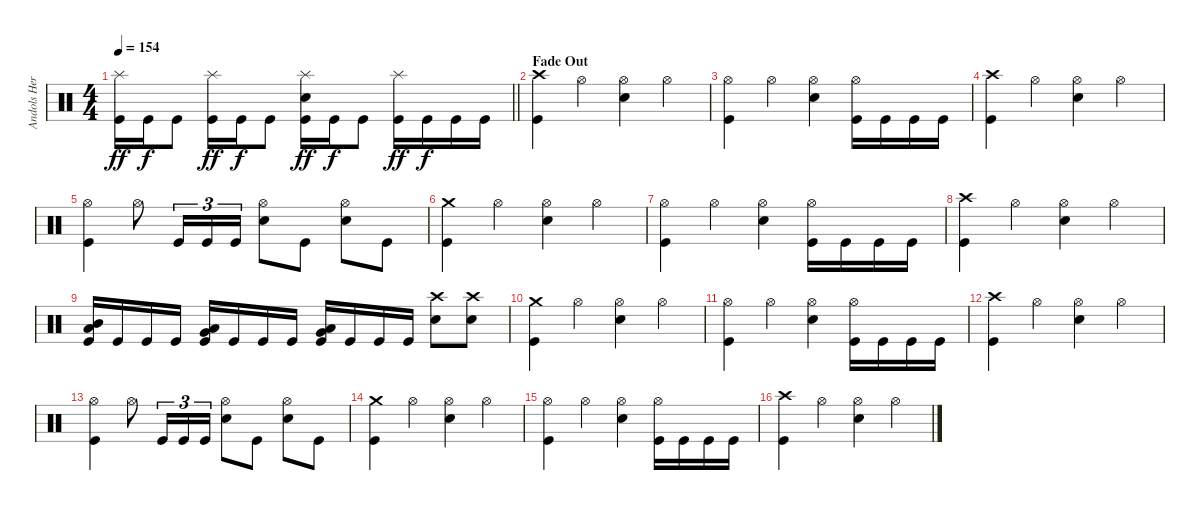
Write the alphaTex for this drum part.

\track ("Andols Herrick" "Andols Her") {instrument percussion}
\staff
\articulation defaults
\ts (4 4)
\tempo 154
\clef neutral
\barLineRight lightlight
\ks c
("Splash (hit)" "Kick (hit)").16{dy ff} "Kick (hit)".16{dy f} "Kick (hit)".8 ("Splash (hit)" "Kick (hit)").16{dy ff} "Kick (hit)".16{dy f} "Kick (hit)".8 ("Splash (hit)" "Electric Snare (hit)" "Kick (hit)").16{dy ff} "Kick (hit)".16{dy f} "Kick (hit)".8 ("Splash (hit)" "Kick (hit)").16{dy ff} "Kick (hit)".16{dy f} "Kick (hit)".16 "Kick (hit)".16 |
\section ("" "Fade Out")
("Crash high (hit)" "Kick (hit)").4{volume 11} "Hi-Hat (open)".4 ("Hi-Hat (open)" "Electric Snare (hit)").4 "Hi-Hat (open)".4 |
("Hi-Hat (open)" "Kick (hit)").4 "Hi-Hat (open)".4 ("Hi-Hat (open)" "Electric Snare (hit)").4 ("Hi-Hat (open)" "Kick (hit)").16 "Kick (hit)".16 "Kick (hit)".16 "Kick (hit)".16 |
("Crash high (hit)" "Kick (hit)").4 "Hi-Hat (open)".4 ("Hi-Hat (open)" "Electric Snare (hit)").4 "Hi-Hat (open)".4 |
("Hi-Hat (open)" "Kick (hit)").4 "Hi-Hat (open)".8 "Kick (hit)".16{tu (3 2)} "Kick (hit)".16{tu (3 2)} "Kick (hit)".16{tu (3 2)} ("Hi-Hat (open)" "Electric Snare (hit)").8 "Kick (hit)".8 ("Hi-Hat (open)" "Electric Snare (hit)").8 "Kick (hit)".8 |
("Crash medium (hit)" "Kick (hit)").4{volume 7} "Hi-Hat (open)".4 ("Hi-Hat (open)" "Electric Snare (hit)").4 "Hi-Hat (open)".4 |
("Hi-Hat (open)" "Kick (hit)").4 "Hi-Hat (open)".4 ("Hi-Hat (open)" "Electric Snare (hit)").4 ("Hi-Hat (open)" "Kick (hit)").16 "Kick (hit)".16 "Kick (hit)".16 "Kick (hit)".16 |
("Crash high (hit)" "Kick (hit)").4 "Hi-Hat (open)".4 ("Hi-Hat (open)" "Electric Snare (hit)").4 "Hi-Hat (open)".4 |
("Mid Tom (hit)" "Low Tom (hit)" "Kick (hit)").16 "Kick (hit)".16 "Kick (hit)".16 "Kick (hit)".16 ("Low Tom (hit)" "Very Low Tom (hit)" "Kick (hit)").16 "Kick (hit)".16 "Kick (hit)".16 "Kick (hit)".16 ("Very Low Tom (hit)" "Low Floor Tom (hit)" "Kick (hit)").16 "Kick (hit)".16 "Kick (hit)".16 "Kick (hit)".16 ("Crash high (hit)" "Electric Snare (hit)").8 ("Crash high (hit)" "Electric Snare (hit)").8 |
("Crash medium (hit)" "Kick (hit)").4{volume 1} "Hi-Hat (open)".4 ("Hi-Hat (open)" "Electric Snare (hit)").4 "Hi-Hat (open)".4 |
("Hi-Hat (open)" "Kick (hit)").4 "Hi-Hat (open)".4 ("Hi-Hat (open)" "Electric Snare (hit)").4 ("Hi-Hat (open)" "Kick (hit)").16 "Kick (hit)".16 "Kick (hit)".16 "Kick (hit)".16 |
("Crash high (hit)" "Kick (hit)").4 "Hi-Hat (open)".4 ("Hi-Hat (open)" "Electric Snare (hit)").4 "Hi-Hat (open)".4 |
("Hi-Hat (open)" "Kick (hit)").4 "Hi-Hat (open)".8 "Kick (hit)".16{tu (3 2)} "Kick (hit)".16{tu (3 2)} "Kick (hit)".16{tu (3 2)} ("Hi-Hat (open)" "Electric Snare (hit)").8 "Kick (hit)".8 ("Hi-Hat (open)" "Electric Snare (hit)").8 "Kick (hit)".8 |
("Crash medium (hit)" "Kick (hit)").4{volume 0} "Hi-Hat (open)".4 ("Hi-Hat (open)" "Electric Snare (hit)").4 "Hi-Hat (open)".4 |
("Hi-Hat (open)" "Kick (hit)").4 "Hi-Hat (open)".4 ("Hi-Hat (open)" "Electric Snare (hit)").4 ("Hi-Hat (open)" "Kick (hit)").16 "Kick (hit)".16 "Kick (hit)".16 "Kick (hit)".16 |
("Crash high (hit)" "Kick (hit)").4 "Hi-Hat (open)".4 ("Hi-Hat (open)" "Electric Snare (hit)").4 "Hi-Hat (open)".4
